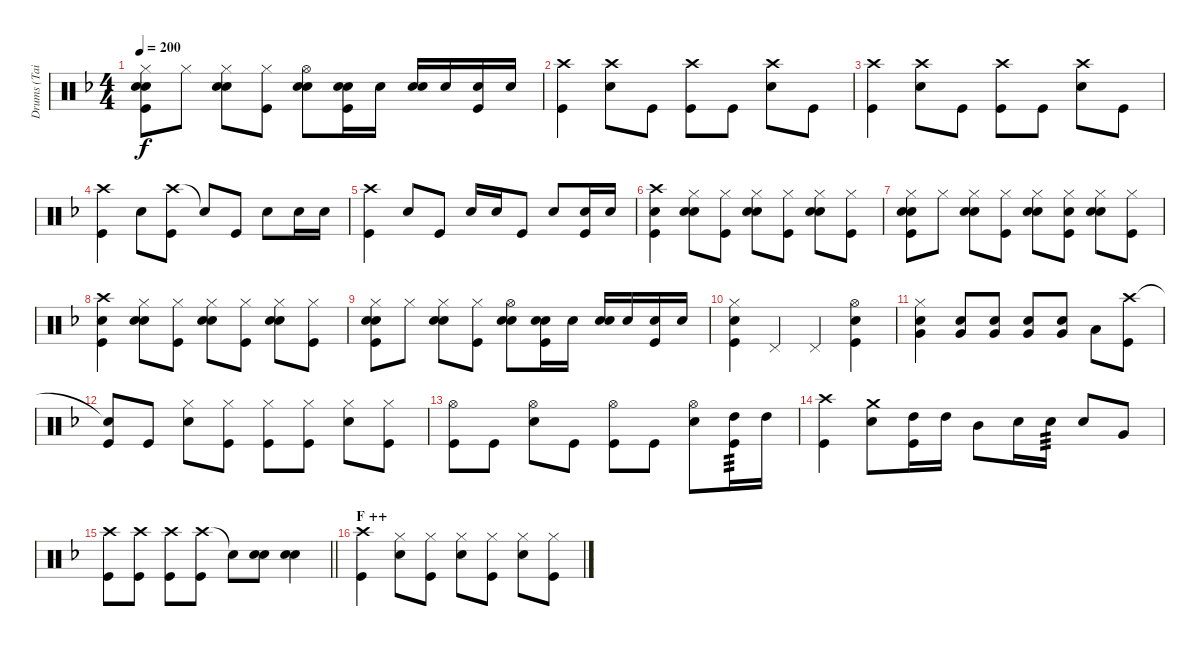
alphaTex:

\track ("Drums (Tainaka Ritsu)" "Drums (Tai") {instrument percussion}
\staff {score}
\articulation defaults
\ts (4 4)
\tempo 200
\clef neutral
\ks f
("Hi-Hat (closed)" "Hand Clap (hit)" "Snare (hit) 2" "Kick (hit)").8{dy f} "Hi-Hat (closed)".8 ("Hi-Hat (closed)" "Hand Clap (hit)" "Snare (hit) 2").8 ("Hi-Hat (closed)" "Kick (hit)").8 ("Hi-Hat (open)" "Hand Clap (hit)" "Snare (hit) 2").8 ("Hand Clap (hit)" "Snare (hit) 2" "Kick (hit)").16 "Snare (hit) 2".16 ("Hand Clap (hit)" "Snare (hit) 2").16 "Snare (hit) 2".16 ("Snare (hit) 2" "Kick (hit)").16 "Snare (hit) 2".16 |
("Crash high (hit)" "Kick (hit)").4 ("Crash high (hit)" "Snare (hit) 2").8 "Kick (hit)".8 ("Crash high (hit)" "Kick (hit)").8 "Kick (hit)".8 ("Crash high (hit)" "Snare (hit) 2").8 "Kick (hit)".8 |
("Crash high (hit)" "Kick (hit)").4 ("Crash high (hit)" "Snare (hit) 2").8 "Kick (hit)".8 ("Crash high (hit)" "Kick (hit)").8 "Kick (hit)".8 ("Crash high (hit)" "Snare (hit) 2").8 "Kick (hit)".8 |
("Crash high (hit)" "Kick (hit)").4 "Snare (hit) 2".8 ("Crash high (hit)" "Kick (hit)").8 "Snare (hit)"{t}.8 "Kick (hit)".8 "Snare (hit) 2".8 "Snare (hit) 2".16 "Snare (hit) 2".16 |
("Crash high (hit)" "Kick (hit)").4 "Snare (hit) 2".8 "Kick (hit)".8 "Snare (hit) 2".16 "Snare (hit) 2".16 "Kick (hit)".8 "Snare (hit) 2".8 ("Snare (hit) 2" "Kick (hit)").16 "Snare (hit) 2".16 |
("Crash high (hit)" "Hand Clap (hit)" "Kick (hit)").4 ("Hi-Hat (closed)" "Hand Clap (hit)" "Snare (hit) 2").8 ("Hi-Hat (closed)" "Kick (hit)").8 ("Hi-Hat (closed)" "Hand Clap (hit)" "Snare (hit) 2").8 ("Hi-Hat (closed)" "Kick (hit)").8 ("Hi-Hat (closed)" "Hand Clap (hit)" "Snare (hit) 2").8 ("Hi-Hat (closed)" "Kick (hit)").8 |
("Hi-Hat (closed)" "Hand Clap (hit)" "Snare (hit) 2" "Kick (hit)").8 "Hi-Hat (closed)".8 ("Hi-Hat (closed)" "Hand Clap (hit)" "Snare (hit) 2").8 ("Hi-Hat (closed)" "Kick (hit)").8 ("Hi-Hat (closed)" "Hand Clap (hit)" "Snare (hit) 2").8 ("Hi-Hat (closed)" "Hand Clap (hit)" "Kick (hit)").8 ("Hi-Hat (closed)" "Hand Clap (hit)" "Snare (hit) 2").8 ("Hi-Hat (closed)" "Kick (hit)").8 |
("Crash high (hit)" "Hand Clap (hit)" "Kick (hit)").4 ("Hi-Hat (closed)" "Hand Clap (hit)" "Snare (hit) 2").8 ("Hi-Hat (closed)" "Kick (hit)").8 ("Hi-Hat (closed)" "Hand Clap (hit)" "Snare (hit) 2").8 ("Hi-Hat (closed)" "Kick (hit)").8 ("Hi-Hat (closed)" "Hand Clap (hit)" "Snare (hit) 2").8 ("Hi-Hat (closed)" "Kick (hit)").8 |
("Hi-Hat (closed)" "Hand Clap (hit)" "Snare (hit) 2" "Kick (hit)").8 "Hi-Hat (closed)".8 ("Hi-Hat (closed)" "Hand Clap (hit)" "Snare (hit) 2").8 ("Hi-Hat (closed)" "Kick (hit)").8 ("Hi-Hat (open)" "Hand Clap (hit)" "Snare (hit) 2").8 ("Hand Clap (hit)" "Snare (hit) 2" "Kick (hit)").16 "Snare (hit) 2".16 ("Hand Clap (hit)" "Snare (hit) 2").16 "Snare (hit) 2".16 ("Snare (hit) 2" "Kick (hit)").16 "Snare (hit) 2".16 |
("Hi-Hat (closed)" "Snare (hit) 2" "Kick (hit)").4 "Pedal Hi-Hat (hit)".4 "Pedal Hi-Hat (hit)".4 ("Hi-Hat (open)" "Snare (hit) 2" "Kick (hit)").4 |
("Hi-Hat (closed)" "Snare (hit) 2" "Very Low Tom (hit)").4 ("Snare (hit) 2" "Very Low Tom (hit)").8 ("Snare (hit) 2" "Very Low Tom (hit)").8 ("Snare (hit) 2" "Very Low Tom (hit)").8 ("Snare (hit) 2" "Very Low Tom (hit)").8 "Low Tom (hit)".8 ("Crash high (hit)" "Kick (hit)").8 |
("Snare (hit)"{t} "Kick (hit)").8 "Kick (hit)".8 ("Hi-Hat (closed)" "Snare (hit) 2").8 ("Hi-Hat (closed)" "Kick (hit)").8 ("Hi-Hat (closed)" "Kick (hit)").8 ("Hi-Hat (closed)" "Kick (hit)").8 ("Hi-Hat (closed)" "Snare (hit) 2").8 ("Hi-Hat (closed)" "Kick (hit)").8 |
("Hi-Hat (open)" "Kick (hit)").8 "Kick (hit)".8 ("Hi-Hat (open)" "Snare (hit) 2").8 "Kick (hit)".8 ("Hi-Hat (open)" "Kick (hit)").8 "Kick (hit)".8 ("Hi-Hat (open)" "Snare (hit) 2").8 ("High Tom (hit)" "Kick (hit)").16{tp 3} "High Tom (hit)".16 |
("Crash high (hit)" "Kick (hit)").4 ("Crash medium (hit)" "Snare (hit) 2").8 ("High Tom (hit)" "Kick (hit)").16 "High Tom (hit)".16 "Mid Tom (hit)".8 "Snare (hit) 2".16 "Snare (hit) 2".16{tp 3} "Snare (hit) 2".8 "Very Low Tom (hit)".8 |
\barLineRight lightlight
("Crash high (hit)" "Kick (hit)").8 ("Crash high (hit)" "Kick (hit)").8 ("Crash high (hit)" "Kick (hit)").8 ("Crash high (hit)" "Kick (hit)").8 "Snare (hit)"{t}.8 ("Hand Clap (hit)" "Snare (hit) 2").8 ("Hand Clap (hit)" "Snare (hit) 2").4 |
\section ("" "F ++")
("Crash high (hit)" "Kick (hit)").4 ("Hi-Hat (closed)" "Snare (hit) 2").8 ("Hi-Hat (closed)" "Kick (hit)").8 ("Hi-Hat (closed)" "Snare (hit) 2").8 ("Hi-Hat (closed)" "Kick (hit)").8 ("Hi-Hat (closed)" "Snare (hit) 2").8 ("Hi-Hat (closed)" "Kick (hit)").8
